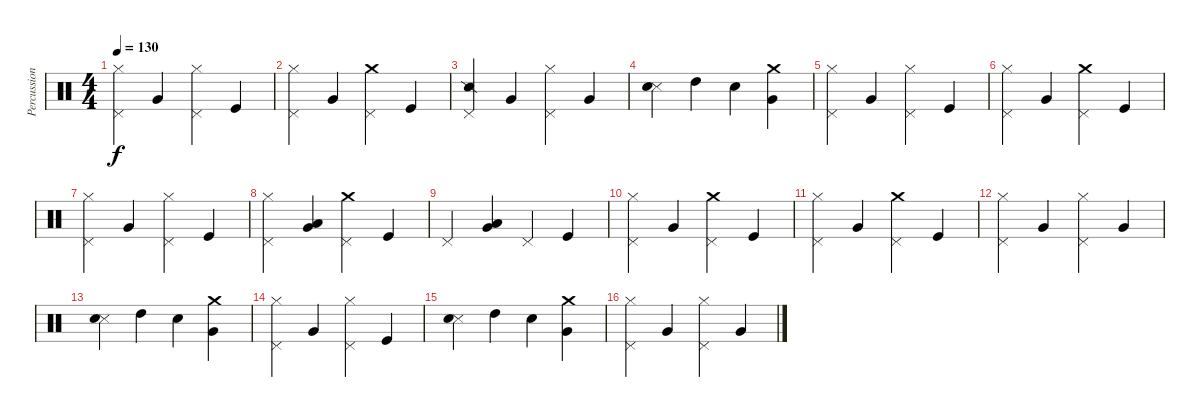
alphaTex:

\track ("Percussions" "Percussion") {instrument percussion}
\staff {score}
\articulation defaults
\ts (4 4)
\tempo 130
\clef neutral
\ks c
("Hi-Hat (closed)" "Pedal Hi-Hat (hit)").4{dy f} "Very Low Tom (hit)".4 ("Hi-Hat (closed)" "Pedal Hi-Hat (hit)").4 "Kick (hit)".4 |
("Hi-Hat (closed)" "Pedal Hi-Hat (hit)").4 "Very Low Tom (hit)".4 ("Crash medium (hit)" "Pedal Hi-Hat (hit)").4 "Kick (hit)".4 |
("Snare (side stick) 2" "Pedal Hi-Hat (hit)").4 "Very Low Tom (hit)".4 ("Hi-Hat (closed)" "Pedal Hi-Hat (hit)").4 "Very Low Tom (hit)".4 |
("Snare (side stick) 3" "Snare (hit) 2").4 "High Tom (hit)".4 "Electric Snare (hit)".4 ("Crash medium (hit)" "Very Low Tom (hit)").4 |
("Hi-Hat (closed)" "Pedal Hi-Hat (hit)").4 "Very Low Tom (hit)".4 ("Hi-Hat (closed)" "Pedal Hi-Hat (hit)").4 "Kick (hit)".4 |
("Hi-Hat (closed)" "Pedal Hi-Hat (hit)").4 "Very Low Tom (hit)".4 ("Crash medium (hit)" "Pedal Hi-Hat (hit)").4 "Kick (hit)".4 |
("Hi-Hat (closed)" "Pedal Hi-Hat (hit)").4 "Very Low Tom (hit)".4 ("Hi-Hat (closed)" "Pedal Hi-Hat (hit)").4 "Kick (hit)".4 |
("Hi-Hat (closed)" "Pedal Hi-Hat (hit)").4 ("Low Floor Tom (hit)" "Very Low Tom (hit)").4 ("Crash medium (hit)" "Pedal Hi-Hat (hit)").4 "Kick (hit)".4 |
"Pedal Hi-Hat (hit)".4 ("Low Floor Tom (hit)" "Very Low Tom (hit)").4 "Pedal Hi-Hat (hit)".4 "Kick (hit)".4 |
("Hi-Hat (closed)" "Pedal Hi-Hat (hit)").4 "Very Low Tom (hit)".4 ("Crash medium (hit)" "Pedal Hi-Hat (hit)").4 "Kick (hit)".4 |
("Hi-Hat (closed)" "Pedal Hi-Hat (hit)").4 "Very Low Tom (hit)".4 ("Crash medium (hit)" "Pedal Hi-Hat (hit)").4 "Kick (hit)".4 |
("Hi-Hat (closed)" "Pedal Hi-Hat (hit)").4 "Very Low Tom (hit)".4 ("Hi-Hat (closed)" "Pedal Hi-Hat (hit)").4 "Very Low Tom (hit)".4 |
("Snare (side stick) 3" "Snare (hit) 2").4 "High Tom (hit)".4 "Electric Snare (hit)".4 ("Crash medium (hit)" "Very Low Tom (hit)").4 |
("Hi-Hat (closed)" "Pedal Hi-Hat (hit)").4 "Very Low Tom (hit)".4 ("Hi-Hat (closed)" "Pedal Hi-Hat (hit)").4 "Kick (hit)".4 |
("Snare (side stick) 3" "Snare (hit) 2").4 "High Tom (hit)".4 "Electric Snare (hit)".4 ("Crash medium (hit)" "Very Low Tom (hit)").4 |
("Hi-Hat (closed)" "Pedal Hi-Hat (hit)").4 "Very Low Tom (hit)".4 ("Hi-Hat (closed)" "Pedal Hi-Hat (hit)").4 "Very Low Tom (hit)".4
